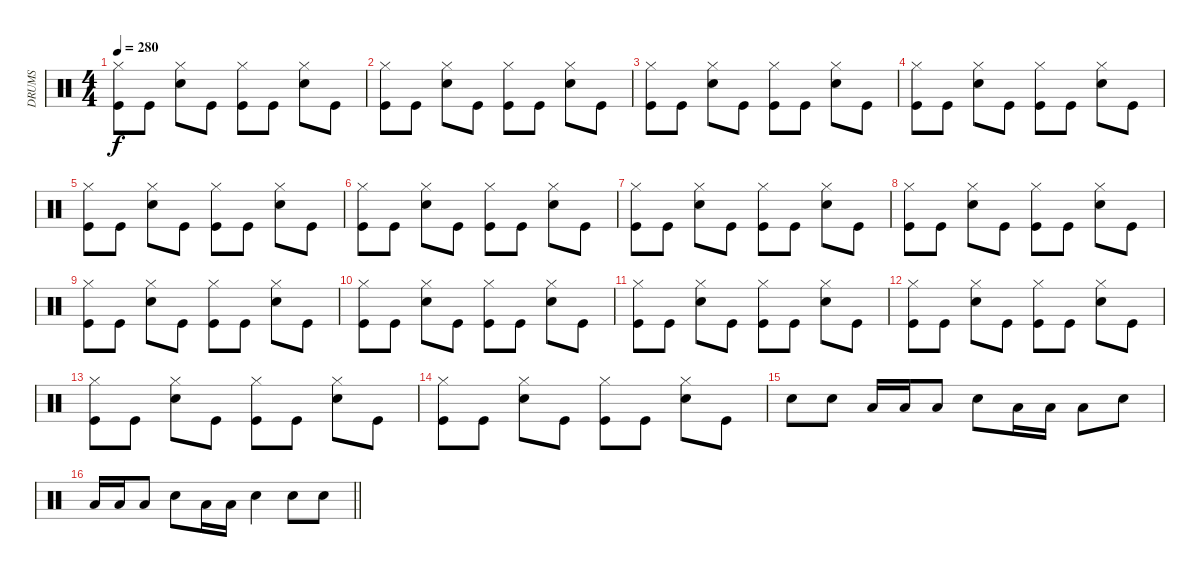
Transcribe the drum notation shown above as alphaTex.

\track ("DRUMS" "DRUMS") {instrument percussion}
\staff {score}
\articulation defaults
\ts (4 4)
\tempo 280
\clef neutral
\ks c
("Hi-Hat (closed)" "Kick (hit)").8{dy f} "Kick (hit)".8 ("Hi-Hat (closed)" "Snare (hit) 2").8 "Kick (hit)".8 ("Hi-Hat (closed)" "Kick (hit)").8 "Kick (hit)".8 ("Hi-Hat (closed)" "Snare (hit) 2").8 "Kick (hit)".8 |
("Hi-Hat (closed)" "Kick (hit)").8 "Kick (hit)".8 ("Hi-Hat (closed)" "Snare (hit) 2").8 "Kick (hit)".8 ("Hi-Hat (closed)" "Kick (hit)").8 "Kick (hit)".8 ("Hi-Hat (closed)" "Snare (hit) 2").8 "Kick (hit)".8 |
("Hi-Hat (closed)" "Kick (hit)").8 "Kick (hit)".8 ("Hi-Hat (closed)" "Snare (hit) 2").8 "Kick (hit)".8 ("Hi-Hat (closed)" "Kick (hit)").8 "Kick (hit)".8 ("Hi-Hat (closed)" "Snare (hit) 2").8 "Kick (hit)".8 |
("Hi-Hat (closed)" "Kick (hit)").8 "Kick (hit)".8 ("Hi-Hat (closed)" "Snare (hit) 2").8 "Kick (hit)".8 ("Hi-Hat (closed)" "Kick (hit)").8 "Kick (hit)".8 ("Hi-Hat (closed)" "Snare (hit) 2").8 "Kick (hit)".8 |
("Hi-Hat (closed)" "Kick (hit)").8 "Kick (hit)".8 ("Hi-Hat (closed)" "Snare (hit) 2").8 "Kick (hit)".8 ("Hi-Hat (closed)" "Kick (hit)").8 "Kick (hit)".8 ("Hi-Hat (closed)" "Snare (hit) 2").8 "Kick (hit)".8 |
("Hi-Hat (closed)" "Kick (hit)").8 "Kick (hit)".8 ("Hi-Hat (closed)" "Snare (hit) 2").8 "Kick (hit)".8 ("Hi-Hat (closed)" "Kick (hit)").8 "Kick (hit)".8 ("Hi-Hat (closed)" "Snare (hit) 2").8 "Kick (hit)".8 |
("Hi-Hat (closed)" "Kick (hit)").8 "Kick (hit)".8 ("Hi-Hat (closed)" "Snare (hit) 2").8 "Kick (hit)".8 ("Hi-Hat (closed)" "Kick (hit)").8 "Kick (hit)".8 ("Hi-Hat (closed)" "Snare (hit) 2").8 "Kick (hit)".8 |
("Hi-Hat (closed)" "Kick (hit)").8 "Kick (hit)".8 ("Hi-Hat (closed)" "Snare (hit) 2").8 "Kick (hit)".8 ("Hi-Hat (closed)" "Kick (hit)").8 "Kick (hit)".8 ("Hi-Hat (closed)" "Snare (hit) 2").8 "Kick (hit)".8 |
("Hi-Hat (closed)" "Kick (hit)").8 "Kick (hit)".8 ("Hi-Hat (closed)" "Snare (hit) 2").8 "Kick (hit)".8 ("Hi-Hat (closed)" "Kick (hit)").8 "Kick (hit)".8 ("Hi-Hat (closed)" "Snare (hit) 2").8 "Kick (hit)".8 |
("Hi-Hat (closed)" "Kick (hit)").8 "Kick (hit)".8 ("Hi-Hat (closed)" "Snare (hit) 2").8 "Kick (hit)".8 ("Hi-Hat (closed)" "Kick (hit)").8 "Kick (hit)".8 ("Hi-Hat (closed)" "Snare (hit) 2").8 "Kick (hit)".8 |
("Hi-Hat (closed)" "Kick (hit)").8 "Kick (hit)".8 ("Hi-Hat (closed)" "Snare (hit) 2").8 "Kick (hit)".8 ("Hi-Hat (closed)" "Kick (hit)").8 "Kick (hit)".8 ("Hi-Hat (closed)" "Snare (hit) 2").8 "Kick (hit)".8 |
("Hi-Hat (closed)" "Kick (hit)").8 "Kick (hit)".8 ("Hi-Hat (closed)" "Snare (hit) 2").8 "Kick (hit)".8 ("Hi-Hat (closed)" "Kick (hit)").8 "Kick (hit)".8 ("Hi-Hat (closed)" "Snare (hit) 2").8 "Kick (hit)".8 |
("Hi-Hat (closed)" "Kick (hit)").8 "Kick (hit)".8 ("Hi-Hat (closed)" "Snare (hit) 2").8 "Kick (hit)".8 ("Hi-Hat (closed)" "Kick (hit)").8 "Kick (hit)".8 ("Hi-Hat (closed)" "Snare (hit) 2").8 "Kick (hit)".8 |
("Hi-Hat (closed)" "Kick (hit)").8 "Kick (hit)".8 ("Hi-Hat (closed)" "Snare (hit) 2").8 "Kick (hit)".8 ("Hi-Hat (closed)" "Kick (hit)").8 "Kick (hit)".8 ("Hi-Hat (closed)" "Snare (hit) 2").8 "Kick (hit)".8 |
"Snare (hit) 2".8 "Snare (hit) 2".8 "Low Tom (hit)".16 "Low Tom (hit)".16 "Low Tom (hit)".8 "Snare (hit) 2".8 "Low Tom (hit)".16 "Low Tom (hit)".16 "Low Tom (hit)".8 "Snare (hit) 2".8 |
\barLineRight lightlight "Low Tom (hit)".16 "Low Tom (hit)".16 "Low Tom (hit)".8 "Snare (hit) 2".8 "Low Tom (hit)".16 "Low Tom (hit)".16 "Snare (hit) 2".4 "Snare (hit) 2".8 "Snare (hit) 2".8
